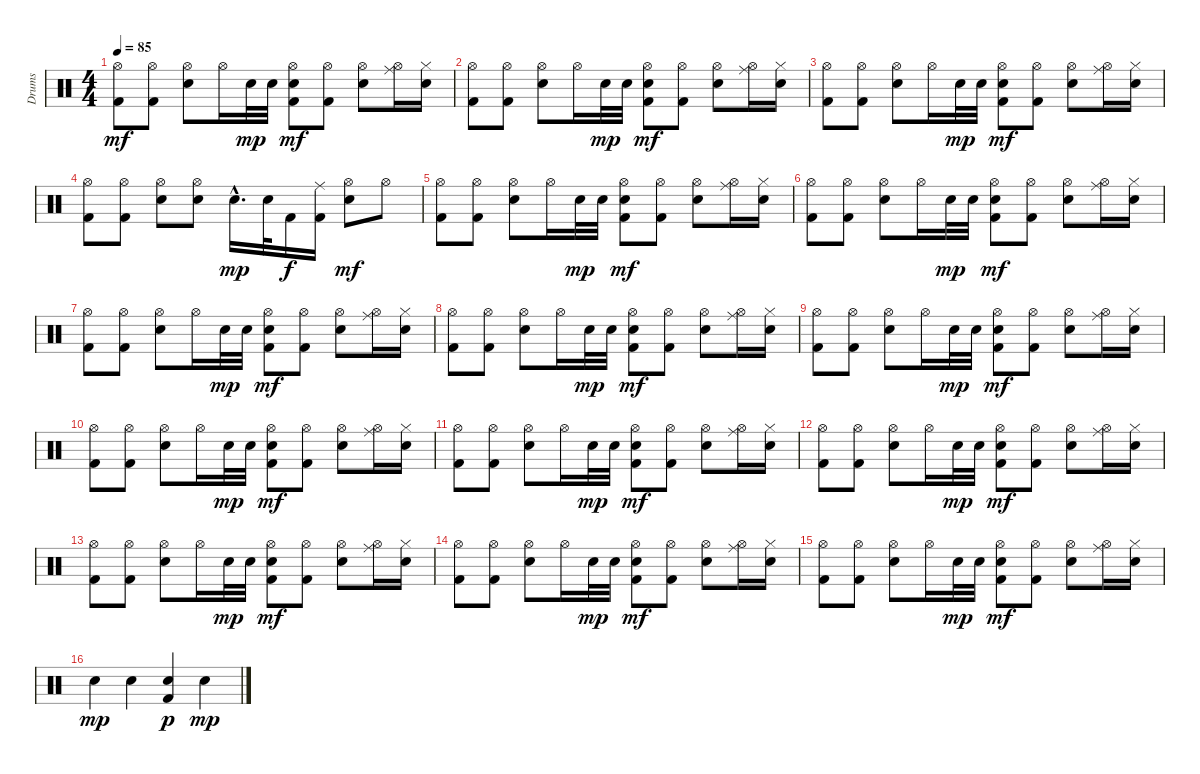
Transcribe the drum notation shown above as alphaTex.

\track ("Drums" "Drums") {instrument percussion}
\staff {score}
\articulation defaults
\ts (4 4)
\tempo 85
\clef neutral
\ks c
("Hi-Hat (open)" "Kick (hit) 2").8{dy mf} ("Hi-Hat (open)" "Kick (hit) 2").8 ("Hi-Hat (open)" "Electric Snare (hit)").8 "Hi-Hat (open)".16 "Electric Snare (hit)".32{dy mp} "Electric Snare (hit)".32 ("Hi-Hat (open)" "Electric Snare (hit)" "Kick (hit) 2").8{dy mf} ("Hi-Hat (open)" "Kick (hit) 2").8 ("Hi-Hat (open)" "Electric Snare (hit)").8 ("Ride (middle)" "Hi-Hat (open)").16 ("Hi-Hat (closed)" "Electric Snare (hit)").16 |
("Hi-Hat (open)" "Kick (hit) 2").8 ("Hi-Hat (open)" "Kick (hit) 2").8 ("Hi-Hat (open)" "Electric Snare (hit)").8 "Hi-Hat (open)".16 "Electric Snare (hit)".32{dy mp} "Electric Snare (hit)".32 ("Hi-Hat (open)" "Electric Snare (hit)" "Kick (hit) 2").8{dy mf} ("Hi-Hat (open)" "Kick (hit) 2").8 ("Hi-Hat (open)" "Electric Snare (hit)").8 ("Ride (middle)" "Hi-Hat (open)").16 ("Hi-Hat (closed)" "Electric Snare (hit)").16 |
("Hi-Hat (open)" "Kick (hit) 2").8 ("Hi-Hat (open)" "Kick (hit) 2").8 ("Hi-Hat (open)" "Electric Snare (hit)").8 "Hi-Hat (open)".16 "Electric Snare (hit)".32{dy mp} "Electric Snare (hit)".32 ("Hi-Hat (open)" "Electric Snare (hit)" "Kick (hit) 2").8{dy mf} ("Hi-Hat (open)" "Kick (hit) 2").8 ("Hi-Hat (open)" "Electric Snare (hit)").8 ("Ride (middle)" "Hi-Hat (open)").16 ("Hi-Hat (closed)" "Electric Snare (hit)").16 |
("Hi-Hat (open)" "Kick (hit) 2").8 ("Hi-Hat (open)" "Kick (hit) 2").8 ("Hi-Hat (open)" "Electric Snare (hit)").8 ("Hi-Hat (open)" "Electric Snare (hit)").8 "Electric Snare (hit)"{hac}.16{d dy mp} "Electric Snare (hit)".32 "Kick (hit) 2".16{dy f} ("Ride (middle)" "Kick (hit) 2").16 ("Hi-Hat (open)" "Electric Snare (hit)").8{dy mf} "Hi-Hat (open)".8 |
("Hi-Hat (open)" "Kick (hit) 2").8 ("Hi-Hat (open)" "Kick (hit) 2").8 ("Hi-Hat (open)" "Electric Snare (hit)").8 "Hi-Hat (open)".16 "Electric Snare (hit)".32{dy mp} "Electric Snare (hit)".32 ("Hi-Hat (open)" "Electric Snare (hit)" "Kick (hit) 2").8{dy mf} ("Hi-Hat (open)" "Kick (hit) 2").8 ("Hi-Hat (open)" "Electric Snare (hit)").8 ("Ride (middle)" "Hi-Hat (open)").16 ("Hi-Hat (closed)" "Electric Snare (hit)").16 |
("Hi-Hat (open)" "Kick (hit) 2").8 ("Hi-Hat (open)" "Kick (hit) 2").8 ("Hi-Hat (open)" "Electric Snare (hit)").8 "Hi-Hat (open)".16 "Electric Snare (hit)".32{dy mp} "Electric Snare (hit)".32 ("Hi-Hat (open)" "Electric Snare (hit)" "Kick (hit) 2").8{dy mf} ("Hi-Hat (open)" "Kick (hit) 2").8 ("Hi-Hat (open)" "Electric Snare (hit)").8 ("Ride (middle)" "Hi-Hat (open)").16 ("Hi-Hat (closed)" "Electric Snare (hit)").16 |
("Hi-Hat (open)" "Kick (hit) 2").8 ("Hi-Hat (open)" "Kick (hit) 2").8 ("Hi-Hat (open)" "Electric Snare (hit)").8 "Hi-Hat (open)".16 "Electric Snare (hit)".32{dy mp} "Electric Snare (hit)".32 ("Hi-Hat (open)" "Electric Snare (hit)" "Kick (hit) 2").8{dy mf} ("Hi-Hat (open)" "Kick (hit) 2").8 ("Hi-Hat (open)" "Electric Snare (hit)").8 ("Ride (middle)" "Hi-Hat (open)").16 ("Hi-Hat (closed)" "Electric Snare (hit)").16 |
("Hi-Hat (open)" "Kick (hit) 2").8 ("Hi-Hat (open)" "Kick (hit) 2").8 ("Hi-Hat (open)" "Electric Snare (hit)").8 "Hi-Hat (open)".16 "Electric Snare (hit)".32{dy mp} "Electric Snare (hit)".32 ("Hi-Hat (open)" "Electric Snare (hit)" "Kick (hit) 2").8{dy mf} ("Hi-Hat (open)" "Kick (hit) 2").8 ("Hi-Hat (open)" "Electric Snare (hit)").8 ("Ride (middle)" "Hi-Hat (open)").16 ("Hi-Hat (closed)" "Electric Snare (hit)").16 |
("Hi-Hat (open)" "Kick (hit) 2").8 ("Hi-Hat (open)" "Kick (hit) 2").8 ("Hi-Hat (open)" "Electric Snare (hit)").8 "Hi-Hat (open)".16 "Electric Snare (hit)".32{dy mp} "Electric Snare (hit)".32 ("Hi-Hat (open)" "Electric Snare (hit)" "Kick (hit) 2").8{dy mf} ("Hi-Hat (open)" "Kick (hit) 2").8 ("Hi-Hat (open)" "Electric Snare (hit)").8 ("Ride (middle)" "Hi-Hat (open)").16 ("Hi-Hat (closed)" "Electric Snare (hit)").16 |
("Hi-Hat (open)" "Kick (hit) 2").8 ("Hi-Hat (open)" "Kick (hit) 2").8 ("Hi-Hat (open)" "Electric Snare (hit)").8 "Hi-Hat (open)".16 "Electric Snare (hit)".32{dy mp} "Electric Snare (hit)".32 ("Hi-Hat (open)" "Electric Snare (hit)" "Kick (hit) 2").8{dy mf} ("Hi-Hat (open)" "Kick (hit) 2").8 ("Hi-Hat (open)" "Electric Snare (hit)").8 ("Ride (middle)" "Hi-Hat (open)").16 ("Hi-Hat (closed)" "Electric Snare (hit)").16 |
("Hi-Hat (open)" "Kick (hit) 2").8 ("Hi-Hat (open)" "Kick (hit) 2").8 ("Hi-Hat (open)" "Electric Snare (hit)").8 "Hi-Hat (open)".16 "Electric Snare (hit)".32{dy mp} "Electric Snare (hit)".32 ("Hi-Hat (open)" "Electric Snare (hit)" "Kick (hit) 2").8{dy mf} ("Hi-Hat (open)" "Kick (hit) 2").8 ("Hi-Hat (open)" "Electric Snare (hit)").8 ("Ride (middle)" "Hi-Hat (open)").16 ("Hi-Hat (closed)" "Electric Snare (hit)").16 |
("Hi-Hat (open)" "Kick (hit) 2").8 ("Hi-Hat (open)" "Kick (hit) 2").8 ("Hi-Hat (open)" "Electric Snare (hit)").8 "Hi-Hat (open)".16 "Electric Snare (hit)".32{dy mp} "Electric Snare (hit)".32 ("Hi-Hat (open)" "Electric Snare (hit)" "Kick (hit) 2").8{dy mf} ("Hi-Hat (open)" "Kick (hit) 2").8 ("Hi-Hat (open)" "Electric Snare (hit)").8 ("Ride (middle)" "Hi-Hat (open)").16 ("Hi-Hat (closed)" "Electric Snare (hit)").16 |
("Hi-Hat (open)" "Kick (hit) 2").8 ("Hi-Hat (open)" "Kick (hit) 2").8 ("Hi-Hat (open)" "Electric Snare (hit)").8 "Hi-Hat (open)".16 "Electric Snare (hit)".32{dy mp} "Electric Snare (hit)".32 ("Hi-Hat (open)" "Electric Snare (hit)" "Kick (hit) 2").8{dy mf} ("Hi-Hat (open)" "Kick (hit) 2").8 ("Hi-Hat (open)" "Electric Snare (hit)").8 ("Ride (middle)" "Hi-Hat (open)").16 ("Hi-Hat (closed)" "Electric Snare (hit)").16 |
("Hi-Hat (open)" "Kick (hit) 2").8 ("Hi-Hat (open)" "Kick (hit) 2").8 ("Hi-Hat (open)" "Electric Snare (hit)").8 "Hi-Hat (open)".16 "Electric Snare (hit)".32{dy mp} "Electric Snare (hit)".32 ("Hi-Hat (open)" "Electric Snare (hit)" "Kick (hit) 2").8{dy mf} ("Hi-Hat (open)" "Kick (hit) 2").8 ("Hi-Hat (open)" "Electric Snare (hit)").8 ("Ride (middle)" "Hi-Hat (open)").16 ("Hi-Hat (closed)" "Electric Snare (hit)").16 |
("Hi-Hat (open)" "Kick (hit) 2").8 ("Hi-Hat (open)" "Kick (hit) 2").8 ("Hi-Hat (open)" "Electric Snare (hit)").8 "Hi-Hat (open)".16 "Electric Snare (hit)".32{dy mp} "Electric Snare (hit)".32 ("Hi-Hat (open)" "Electric Snare (hit)" "Kick (hit) 2").8{dy mf} ("Hi-Hat (open)" "Kick (hit) 2").8 ("Hi-Hat (open)" "Electric Snare (hit)").8 ("Ride (middle)" "Hi-Hat (open)").16 ("Hi-Hat (closed)" "Electric Snare (hit)").16 |
"Electric Snare (hit)".4{dy mp} "Electric Snare (hit)".4 ("Electric Snare (hit)" "Kick (hit) 2").4{dy p} "Electric Snare (hit)".4{dy mp}
